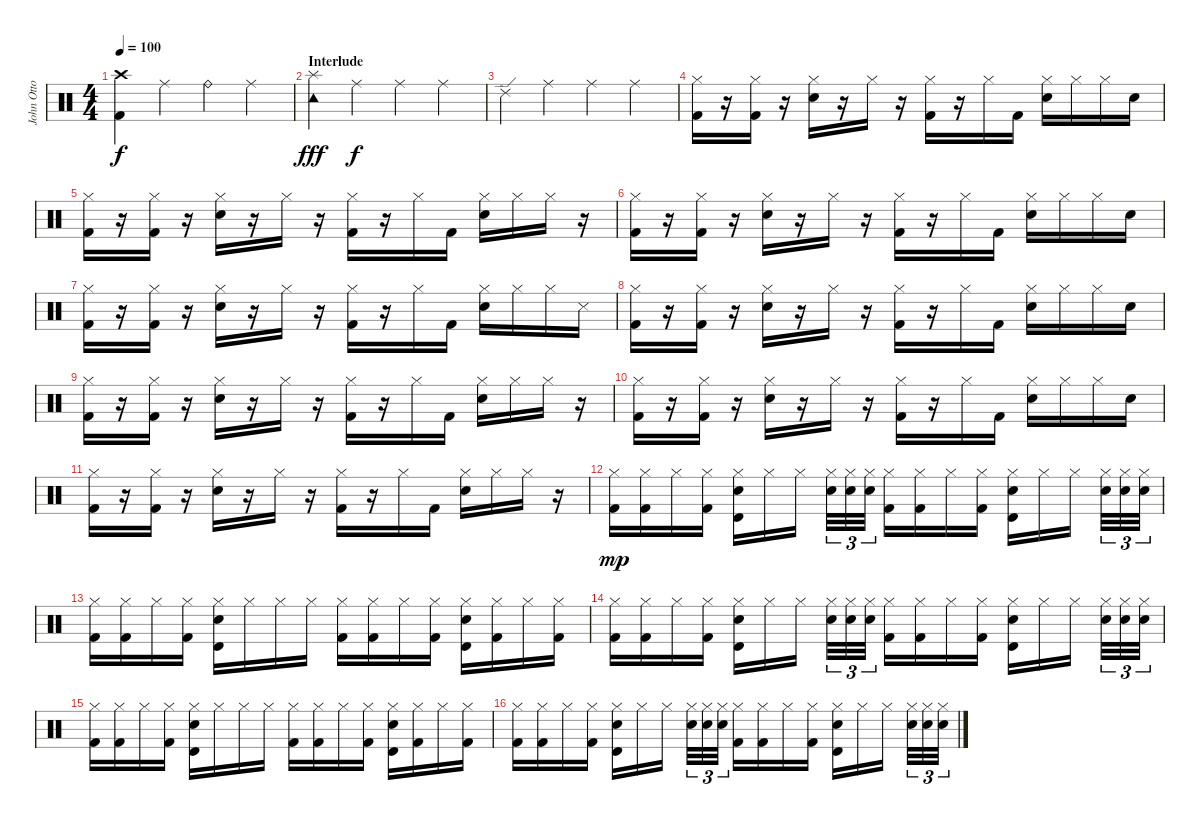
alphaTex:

\track ("John Otto - Drums" "John Otto ") {instrument percussion}
\staff {score}
\articulation defaults
\ts (4 4)
\tempo 100
\clef neutral
\ks c
("Crash high (hit)" "Kick (hit) 2").4{dy f} "Ride (middle)".4 "Ride (bell)".4 "Ride (middle)".4 |
\section ("" "Interlude")
("Splash (hit)" "Tambourine (hit)").4{dy fff} "Ride (middle)".4{dy f} "Ride (middle)".4 "Ride (middle)".4 |
"Ride (edge) 2".4 "Ride (middle)".4 "Ride (middle)".4 "Ride (middle)".4 |
("Hi-Hat (closed)" "Kick (hit) 2").16 r.16 ("Hi-Hat (closed)" "Kick (hit) 2").16 r.16 ("Hi-Hat (closed)" "Electric Snare (hit)").16 r.16 "Hi-Hat (closed)".16 r.16 ("Hi-Hat (closed)" "Kick (hit) 2").16 r.16 "Hi-Hat (closed)".16 "Kick (hit) 2".16 ("Hi-Hat (closed)" "Electric Snare (hit)").16 "Hi-Hat (closed)".16 "Hi-Hat (closed)".16 "Electric Snare (hit)".16 |
("Hi-Hat (closed)" "Kick (hit) 2").16 r.16 ("Hi-Hat (closed)" "Kick (hit) 2").16 r.16 ("Hi-Hat (closed)" "Electric Snare (hit)").16 r.16 "Hi-Hat (closed)".16 r.16 ("Hi-Hat (closed)" "Kick (hit) 2").16 r.16 "Hi-Hat (closed)".16 "Kick (hit) 2".16 ("Hi-Hat (closed)" "Electric Snare (hit)").16 "Hi-Hat (closed)".16 "Hi-Hat (closed)".16 r.16 |
("Hi-Hat (closed)" "Kick (hit) 2").16 r.16 ("Hi-Hat (closed)" "Kick (hit) 2").16 r.16 ("Hi-Hat (closed)" "Electric Snare (hit)").16 r.16 "Hi-Hat (closed)".16 r.16 ("Hi-Hat (closed)" "Kick (hit) 2").16 r.16 "Hi-Hat (closed)".16 "Kick (hit) 2".16 ("Hi-Hat (closed)" "Electric Snare (hit)").16 "Hi-Hat (closed)".16 "Hi-Hat (closed)".16 "Electric Snare (hit)".16 |
("Hi-Hat (closed)" "Kick (hit) 2").16 r.16 ("Hi-Hat (closed)" "Kick (hit) 2").16 r.16 ("Hi-Hat (closed)" "Electric Snare (hit)").16 r.16 "Hi-Hat (closed)".16 r.16 ("Hi-Hat (closed)" "Kick (hit) 2").16 r.16 "Hi-Hat (closed)".16 "Kick (hit) 2".16 ("Hi-Hat (closed)" "Electric Snare (hit)").16 "Hi-Hat (closed)".16 "Hi-Hat (closed)".16 "Snare (side stick) 3".16 |
("Hi-Hat (closed)" "Kick (hit) 2").16 r.16 ("Hi-Hat (closed)" "Kick (hit) 2").16 r.16 ("Hi-Hat (closed)" "Electric Snare (hit)").16 r.16 "Hi-Hat (closed)".16 r.16 ("Hi-Hat (closed)" "Kick (hit) 2").16 r.16 "Hi-Hat (closed)".16 "Kick (hit) 2".16 ("Hi-Hat (closed)" "Electric Snare (hit)").16 "Hi-Hat (closed)".16 "Hi-Hat (closed)".16 "Electric Snare (hit)".16 |
("Hi-Hat (closed)" "Kick (hit) 2").16 r.16 ("Hi-Hat (closed)" "Kick (hit) 2").16 r.16 ("Hi-Hat (closed)" "Electric Snare (hit)").16 r.16 "Hi-Hat (closed)".16 r.16 ("Hi-Hat (closed)" "Kick (hit) 2").16 r.16 "Hi-Hat (closed)".16 "Kick (hit) 2".16 ("Hi-Hat (closed)" "Electric Snare (hit)").16 "Hi-Hat (closed)".16 "Hi-Hat (closed)".16 r.16 |
("Hi-Hat (closed)" "Kick (hit) 2").16 r.16 ("Hi-Hat (closed)" "Kick (hit) 2").16 r.16 ("Hi-Hat (closed)" "Electric Snare (hit)").16 r.16 "Hi-Hat (closed)".16 r.16 ("Hi-Hat (closed)" "Kick (hit) 2").16 r.16 "Hi-Hat (closed)".16 "Kick (hit) 2".16 ("Hi-Hat (closed)" "Electric Snare (hit)").16 "Hi-Hat (closed)".16 "Hi-Hat (closed)".16 "Electric Snare (hit)".16 |
("Hi-Hat (closed)" "Kick (hit) 2").16 r.16 ("Hi-Hat (closed)" "Kick (hit) 2").16 r.16 ("Hi-Hat (closed)" "Electric Snare (hit)").16 r.16 "Hi-Hat (closed)".16 r.16 ("Hi-Hat (closed)" "Kick (hit) 2").16 r.16 "Hi-Hat (closed)".16 "Kick (hit) 2".16 ("Hi-Hat (closed)" "Electric Snare (hit)").16 "Hi-Hat (closed)".16 "Hi-Hat (closed)".16 r.16 |
("Hi-Hat (closed)" "Kick (hit) 2").16{dy mp} ("Hi-Hat (closed)" "Kick (hit) 2").16 "Hi-Hat (closed)".16 ("Hi-Hat (closed)" "Kick (hit) 2").16 ("Hi-Hat (closed)" "Timbale high (hit)" "Electric Snare (hit)").16 "Hi-Hat (closed)".16 "Hi-Hat (closed)".16 ("Hi-Hat (closed)" "Electric Snare (hit)").32{tu (3 2)} ("Hi-Hat (closed)" "Electric Snare (hit)").32{tu (3 2)} ("Hi-Hat (closed)" "Electric Snare (hit)").32{tu (3 2)} ("Hi-Hat (closed)" "Kick (hit) 2").16 ("Hi-Hat (closed)" "Kick (hit) 2").16 "Hi-Hat (closed)".16 ("Hi-Hat (closed)" "Kick (hit) 2").16 ("Hi-Hat (closed)" "Timbale high (hit)" "Electric Snare (hit)").16 "Hi-Hat (closed)".16 "Hi-Hat (closed)".16 ("Hi-Hat (closed)" "Electric Snare (hit)").32{tu (3 2)} ("Hi-Hat (closed)" "Electric Snare (hit)").32{tu (3 2)} ("Hi-Hat (closed)" "Electric Snare (hit)").32{tu (3 2)} |
("Hi-Hat (closed)" "Kick (hit) 2").16 ("Hi-Hat (closed)" "Kick (hit) 2").16 "Hi-Hat (closed)".16 ("Hi-Hat (closed)" "Kick (hit) 2").16 ("Hi-Hat (closed)" "Timbale high (hit)" "Electric Snare (hit)").16 "Hi-Hat (closed)".16 "Hi-Hat (closed)".16 "Hi-Hat (closed)".16 ("Hi-Hat (closed)" "Kick (hit) 2").16 ("Hi-Hat (closed)" "Kick (hit) 2").16 "Hi-Hat (closed)".16 ("Hi-Hat (closed)" "Kick (hit) 2").16 ("Hi-Hat (closed)" "Timbale high (hit)" "Electric Snare (hit)").16 ("Hi-Hat (closed)" "Kick (hit) 2").16 "Hi-Hat (closed)".16 ("Hi-Hat (closed)" "Kick (hit) 2").16 |
("Hi-Hat (closed)" "Kick (hit) 2").16 ("Hi-Hat (closed)" "Kick (hit) 2").16 "Hi-Hat (closed)".16 ("Hi-Hat (closed)" "Kick (hit) 2").16 ("Hi-Hat (closed)" "Timbale high (hit)" "Electric Snare (hit)").16 "Hi-Hat (closed)".16 "Hi-Hat (closed)".16 ("Hi-Hat (closed)" "Electric Snare (hit)").32{tu (3 2)} ("Hi-Hat (closed)" "Electric Snare (hit)").32{tu (3 2)} ("Hi-Hat (closed)" "Electric Snare (hit)").32{tu (3 2)} ("Hi-Hat (closed)" "Kick (hit) 2").16 ("Hi-Hat (closed)" "Kick (hit) 2").16 "Hi-Hat (closed)".16 ("Hi-Hat (closed)" "Kick (hit) 2").16 ("Hi-Hat (closed)" "Timbale high (hit)" "Electric Snare (hit)").16 "Hi-Hat (closed)".16 "Hi-Hat (closed)".16 ("Hi-Hat (closed)" "Electric Snare (hit)").32{tu (3 2)} ("Hi-Hat (closed)" "Electric Snare (hit)").32{tu (3 2)} ("Hi-Hat (closed)" "Electric Snare (hit)").32{tu (3 2)} |
("Hi-Hat (closed)" "Kick (hit) 2").16 ("Hi-Hat (closed)" "Kick (hit) 2").16 "Hi-Hat (closed)".16 ("Hi-Hat (closed)" "Kick (hit) 2").16 ("Hi-Hat (closed)" "Timbale high (hit)" "Electric Snare (hit)").16 "Hi-Hat (closed)".16 "Hi-Hat (closed)".16 "Hi-Hat (closed)".16 ("Hi-Hat (closed)" "Kick (hit) 2").16 ("Hi-Hat (closed)" "Kick (hit) 2").16 "Hi-Hat (closed)".16 ("Hi-Hat (closed)" "Kick (hit) 2").16 ("Hi-Hat (closed)" "Timbale high (hit)" "Electric Snare (hit)").16 ("Hi-Hat (closed)" "Kick (hit) 2").16 "Hi-Hat (closed)".16 ("Hi-Hat (closed)" "Kick (hit) 2").16 |
("Hi-Hat (closed)" "Kick (hit) 2").16 ("Hi-Hat (closed)" "Kick (hit) 2").16 "Hi-Hat (closed)".16 ("Hi-Hat (closed)" "Kick (hit) 2").16 ("Hi-Hat (closed)" "Timbale high (hit)" "Electric Snare (hit)").16 "Hi-Hat (closed)".16 "Hi-Hat (closed)".16 ("Hi-Hat (closed)" "Electric Snare (hit)").32{tu (3 2)} ("Hi-Hat (closed)" "Electric Snare (hit)").32{tu (3 2)} ("Hi-Hat (closed)" "Electric Snare (hit)").32{tu (3 2)} ("Hi-Hat (closed)" "Kick (hit) 2").16 ("Hi-Hat (closed)" "Kick (hit) 2").16 "Hi-Hat (closed)".16 ("Hi-Hat (closed)" "Kick (hit) 2").16 ("Hi-Hat (closed)" "Timbale high (hit)" "Electric Snare (hit)").16 "Hi-Hat (closed)".16 "Hi-Hat (closed)".16 ("Hi-Hat (closed)" "Electric Snare (hit)").32{tu (3 2)} ("Hi-Hat (closed)" "Electric Snare (hit)").32{tu (3 2)} ("Hi-Hat (closed)" "Electric Snare (hit)").32{tu (3 2)}
